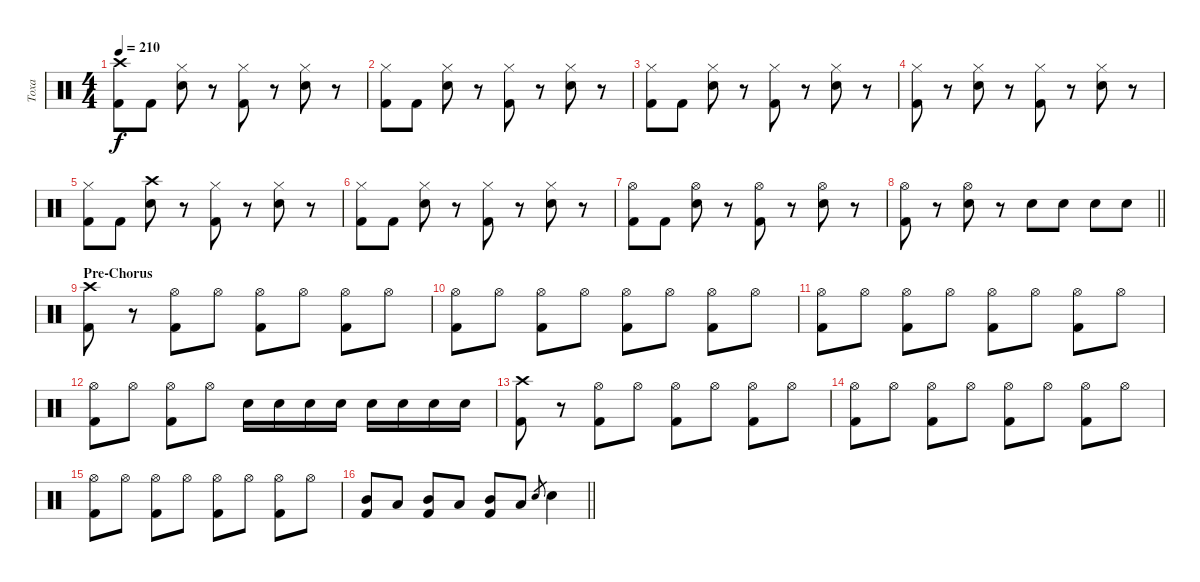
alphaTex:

\track ("Toxa" "Toxa") {instrument percussion}
\staff {score}
\articulation defaults
\ts (4 4)
\tempo 210
\clef neutral
\ks c
("Kick (hit) 2" "Crash high (hit)").8{dy f} "Kick (hit) 2".8 ("Snare (hit) 2" "Hi-Hat (closed)").8 r.8 ("Kick (hit) 2" "Hi-Hat (closed)").8 r.8 ("Snare (hit) 2" "Hi-Hat (closed)").8 r.8 |
("Kick (hit) 2" "Hi-Hat (closed)").8 "Kick (hit) 2".8 ("Snare (hit) 2" "Hi-Hat (closed)").8 r.8 ("Kick (hit) 2" "Hi-Hat (closed)").8 r.8 ("Snare (hit) 2" "Hi-Hat (closed)").8 r.8 |
("Kick (hit) 2" "Hi-Hat (closed)").8 "Kick (hit) 2".8 ("Snare (hit) 2" "Hi-Hat (closed)").8 r.8 ("Kick (hit) 2" "Hi-Hat (closed)").8 r.8 ("Snare (hit) 2" "Hi-Hat (closed)").8 r.8 |
("Kick (hit) 2" "Hi-Hat (closed)").8 r.8 ("Snare (hit) 2" "Hi-Hat (closed)").8 r.8 ("Kick (hit) 2" "Hi-Hat (closed)").8 r.8 ("Snare (hit) 2" "Hi-Hat (closed)").8 r.8 |
("Kick (hit) 2" "Hi-Hat (closed)").8 "Kick (hit) 2".8 ("Snare (hit) 2" "Crash high (hit)").8 r.8 ("Kick (hit) 2" "Hi-Hat (closed)").8 r.8 ("Snare (hit) 2" "Hi-Hat (closed)").8 r.8 |
("Kick (hit) 2" "Hi-Hat (closed)").8 "Kick (hit) 2".8 ("Snare (hit) 2" "Hi-Hat (closed)").8 r.8 ("Kick (hit) 2" "Hi-Hat (closed)").8 r.8 ("Snare (hit) 2" "Hi-Hat (closed)").8 r.8 |
("Kick (hit) 2" "Hi-Hat (open)").8 "Kick (hit) 2".8 ("Snare (hit) 2" "Hi-Hat (open)").8 r.8 ("Kick (hit) 2" "Hi-Hat (open)").8 r.8 ("Snare (hit) 2" "Hi-Hat (open)").8 r.8 |
\barLineRight lightlight
("Kick (hit) 2" "Hi-Hat (open)").8 r.8 ("Snare (hit) 2" "Hi-Hat (open)").8 r.8 "Snare (hit) 2".8 "Snare (hit) 2".8 "Snare (hit) 2".8 "Snare (hit) 2".8 |
\section ("" "Pre-Chorus")
("Kick (hit) 2" "Crash high (hit)").8 r.8 ("Hi-Hat (open)" "Kick (hit) 2").8 "Hi-Hat (open)".8 ("Hi-Hat (open)" "Kick (hit) 2").8 "Hi-Hat (open)".8 ("Hi-Hat (open)" "Kick (hit) 2").8 "Hi-Hat (open)".8 |
("Kick (hit) 2" "Hi-Hat (open)").8 "Hi-Hat (open)".8 ("Hi-Hat (open)" "Kick (hit) 2").8 "Hi-Hat (open)".8 ("Hi-Hat (open)" "Kick (hit) 2").8 "Hi-Hat (open)".8 ("Hi-Hat (open)" "Kick (hit) 2").8 "Hi-Hat (open)".8 |
("Kick (hit) 2" "Hi-Hat (open)").8 "Hi-Hat (open)".8 ("Hi-Hat (open)" "Kick (hit) 2").8 "Hi-Hat (open)".8 ("Hi-Hat (open)" "Kick (hit) 2").8 "Hi-Hat (open)".8 ("Hi-Hat (open)" "Kick (hit) 2").8 "Hi-Hat (open)".8 |
("Kick (hit) 2" "Hi-Hat (open)").8 "Hi-Hat (open)".8 ("Hi-Hat (open)" "Kick (hit) 2").8 "Hi-Hat (open)".8 "Snare (hit) 2".16 "Snare (hit) 2".16 "Snare (hit) 2".16 "Snare (hit) 2".16 "Snare (hit) 2".16 "Snare (hit) 2".16 "Snare (hit) 2".16 "Snare (hit) 2".16 |
("Kick (hit) 2" "Crash high (hit)").8 r.8 ("Hi-Hat (open)" "Kick (hit) 2").8 "Hi-Hat (open)".8 ("Hi-Hat (open)" "Kick (hit) 2").8 "Hi-Hat (open)".8 ("Hi-Hat (open)" "Kick (hit) 2").8 "Hi-Hat (open)".8 |
("Kick (hit) 2" "Hi-Hat (open)").8 "Hi-Hat (open)".8 ("Hi-Hat (open)" "Kick (hit) 2").8 "Hi-Hat (open)".8 ("Hi-Hat (open)" "Kick (hit) 2").8 "Hi-Hat (open)".8 ("Hi-Hat (open)" "Kick (hit) 2").8 "Hi-Hat (open)".8 |
("Kick (hit) 2" "Hi-Hat (open)").8 "Hi-Hat (open)".8 ("Hi-Hat (open)" "Kick (hit) 2").8 "Hi-Hat (open)".8 ("Hi-Hat (open)" "Kick (hit) 2").8 "Hi-Hat (open)".8 ("Hi-Hat (open)" "Kick (hit) 2").8 "Hi-Hat (open)".8 |
\barLineRight lightlight
("Mid Tom (hit)" "Kick (hit) 2").8 "Low Tom (hit)".8 ("Mid Tom (hit)" "Kick (hit) 2").8 "Low Tom (hit)".8 ("Mid Tom (hit)" "Kick (hit) 2").8 "Low Tom (hit)".8 "Snare (hit) 2".8{gr} "Snare (hit) 2".4
